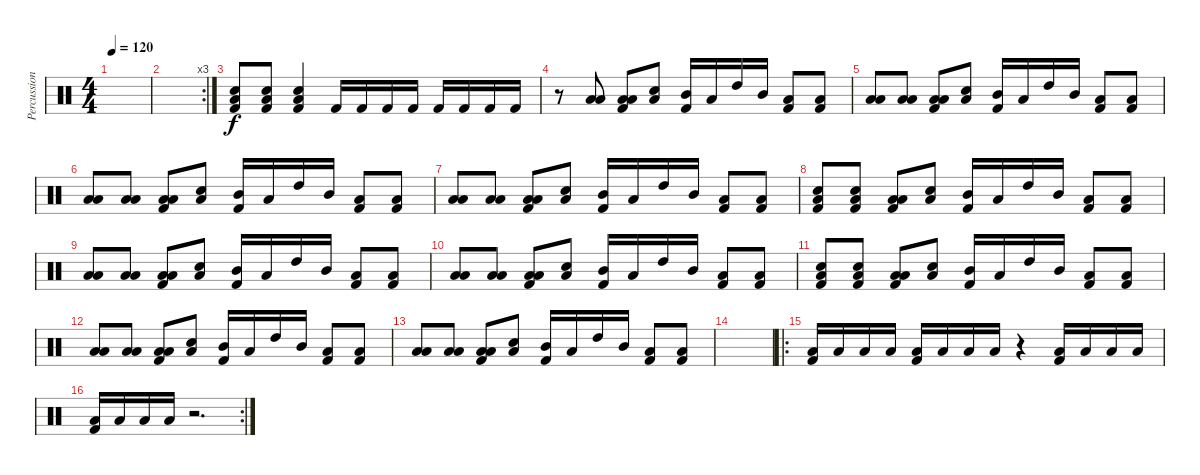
\track ("Percussions" "Percussion") {instrument percussion}
\staff {score}
\articulation defaults
\ts (4 4)
\tempo 120
\clef neutral
\ks c
|
\rc 3
|
("Snare (hit) 2" "Low Tom (hit)" "Kick (hit) 2").8 ("Snare (hit) 2" "Low Tom (hit)" "Kick (hit) 2").8 ("Snare (hit) 2" "Low Tom (hit)" "Kick (hit) 2").4 "Kick (hit) 2".16 "Kick (hit) 2".16 "Kick (hit) 2".16 "Kick (hit) 2".16 "Kick (hit) 2".16 "Kick (hit) 2".16 "Kick (hit) 2".16 "Kick (hit) 2".16 |
r.8 ("Low Tom (hit)" "Low Tom (hit)").8 ("Low Tom (hit)" "Low Tom (hit)" "Kick (hit) 2").8 ("Low Tom (hit)" "Snare (hit) 2").8 ("Mid Tom (hit)" "Kick (hit) 2").16 "Low Tom (hit)".16 "High Tom (hit)".16 "Mid Tom (hit)".16 ("Low Tom (hit)" "Kick (hit) 2").8 ("Low Tom (hit)" "Kick (hit) 2").8 |
("Low Tom (hit)" "Low Tom (hit)").8 ("Low Tom (hit)" "Low Tom (hit)").8 ("Low Tom (hit)" "Low Tom (hit)" "Kick (hit) 2").8 ("Low Tom (hit)" "Snare (hit) 2").8 ("Mid Tom (hit)" "Kick (hit) 2").16 "Low Tom (hit)".16 "High Tom (hit)".16 "Mid Tom (hit)".16 ("Low Tom (hit)" "Kick (hit) 2").8 ("Low Tom (hit)" "Kick (hit) 2").8 |
("Low Tom (hit)" "Low Tom (hit)").8 ("Low Tom (hit)" "Low Tom (hit)").8 ("Low Tom (hit)" "Low Tom (hit)" "Kick (hit) 2").8 ("Low Tom (hit)" "Snare (hit) 2").8 ("Mid Tom (hit)" "Kick (hit) 2").16 "Low Tom (hit)".16 "High Tom (hit)".16 "Mid Tom (hit)".16 ("Low Tom (hit)" "Kick (hit) 2").8 ("Low Tom (hit)" "Kick (hit) 2").8 |
("Low Tom (hit)" "Low Tom (hit)").8 ("Low Tom (hit)" "Low Tom (hit)").8 ("Low Tom (hit)" "Low Tom (hit)" "Kick (hit) 2").8 ("Low Tom (hit)" "Snare (hit) 2").8 ("Mid Tom (hit)" "Kick (hit) 2").16 "Low Tom (hit)".16 "High Tom (hit)".16 "Mid Tom (hit)".16 ("Low Tom (hit)" "Kick (hit) 2").8 ("Low Tom (hit)" "Kick (hit) 2").8 |
("Snare (hit) 2" "Low Tom (hit)" "Kick (hit) 2").8 ("Snare (hit) 2" "Low Tom (hit)" "Kick (hit) 2").8 ("Low Tom (hit)" "Low Tom (hit)" "Kick (hit) 2").8 ("Low Tom (hit)" "Snare (hit) 2").8 ("Mid Tom (hit)" "Kick (hit) 2").16 "Low Tom (hit)".16 "High Tom (hit)".16 "Mid Tom (hit)".16 ("Low Tom (hit)" "Kick (hit) 2").8 ("Low Tom (hit)" "Kick (hit) 2").8 |
("Low Tom (hit)" "Low Tom (hit)").8 ("Low Tom (hit)" "Low Tom (hit)").8 ("Low Tom (hit)" "Low Tom (hit)" "Kick (hit) 2").8 ("Low Tom (hit)" "Snare (hit) 2").8 ("Mid Tom (hit)" "Kick (hit) 2").16 "Low Tom (hit)".16 "High Tom (hit)".16 "Mid Tom (hit)".16 ("Low Tom (hit)" "Kick (hit) 2").8 ("Low Tom (hit)" "Kick (hit) 2").8 |
("Low Tom (hit)" "Low Tom (hit)").8 ("Low Tom (hit)" "Low Tom (hit)").8 ("Low Tom (hit)" "Low Tom (hit)" "Kick (hit) 2").8 ("Low Tom (hit)" "Snare (hit) 2").8 ("Mid Tom (hit)" "Kick (hit) 2").16 "Low Tom (hit)".16 "High Tom (hit)".16 "Mid Tom (hit)".16 ("Low Tom (hit)" "Kick (hit) 2").8 ("Low Tom (hit)" "Kick (hit) 2").8 |
("Snare (hit) 2" "Low Tom (hit)" "Kick (hit) 2").8 ("Snare (hit) 2" "Low Tom (hit)" "Kick (hit) 2").8 ("Low Tom (hit)" "Low Tom (hit)" "Kick (hit) 2").8 ("Low Tom (hit)" "Snare (hit) 2").8 ("Mid Tom (hit)" "Kick (hit) 2").16 "Low Tom (hit)".16 "High Tom (hit)".16 "Mid Tom (hit)".16 ("Low Tom (hit)" "Kick (hit) 2").8 ("Low Tom (hit)" "Kick (hit) 2").8 |
("Low Tom (hit)" "Low Tom (hit)").8 ("Low Tom (hit)" "Low Tom (hit)").8 ("Low Tom (hit)" "Low Tom (hit)" "Kick (hit) 2").8 ("Low Tom (hit)" "Snare (hit) 2").8 ("Mid Tom (hit)" "Kick (hit) 2").16 "Low Tom (hit)".16 "High Tom (hit)".16 "Mid Tom (hit)".16 ("Low Tom (hit)" "Kick (hit) 2").8 ("Low Tom (hit)" "Kick (hit) 2").8 |
("Low Tom (hit)" "Low Tom (hit)").8 ("Low Tom (hit)" "Low Tom (hit)").8 ("Low Tom (hit)" "Low Tom (hit)" "Kick (hit) 2").8 ("Low Tom (hit)" "Snare (hit) 2").8 ("Mid Tom (hit)" "Kick (hit) 2").16 "Low Tom (hit)".16 "High Tom (hit)".16 "Mid Tom (hit)".16 ("Low Tom (hit)" "Kick (hit) 2").8 ("Low Tom (hit)" "Kick (hit) 2").8 |
|
\ro
("Low Tom (hit)" "Kick (hit) 2").16 "Low Tom (hit)".16 "Low Tom (hit)".16 "Low Tom (hit)".16 ("Low Tom (hit)" "Kick (hit) 2").16 "Low Tom (hit)".16 "Low Tom (hit)".16 "Low Tom (hit)".16 r.4 ("Low Tom (hit)" "Kick (hit) 2").16 "Low Tom (hit)".16 "Low Tom (hit)".16 "Low Tom (hit)".16 |
\rc 2
("Low Tom (hit)" "Kick (hit) 2").16 "Low Tom (hit)".16 "Low Tom (hit)".16 "Low Tom (hit)".16 r.2{d}
